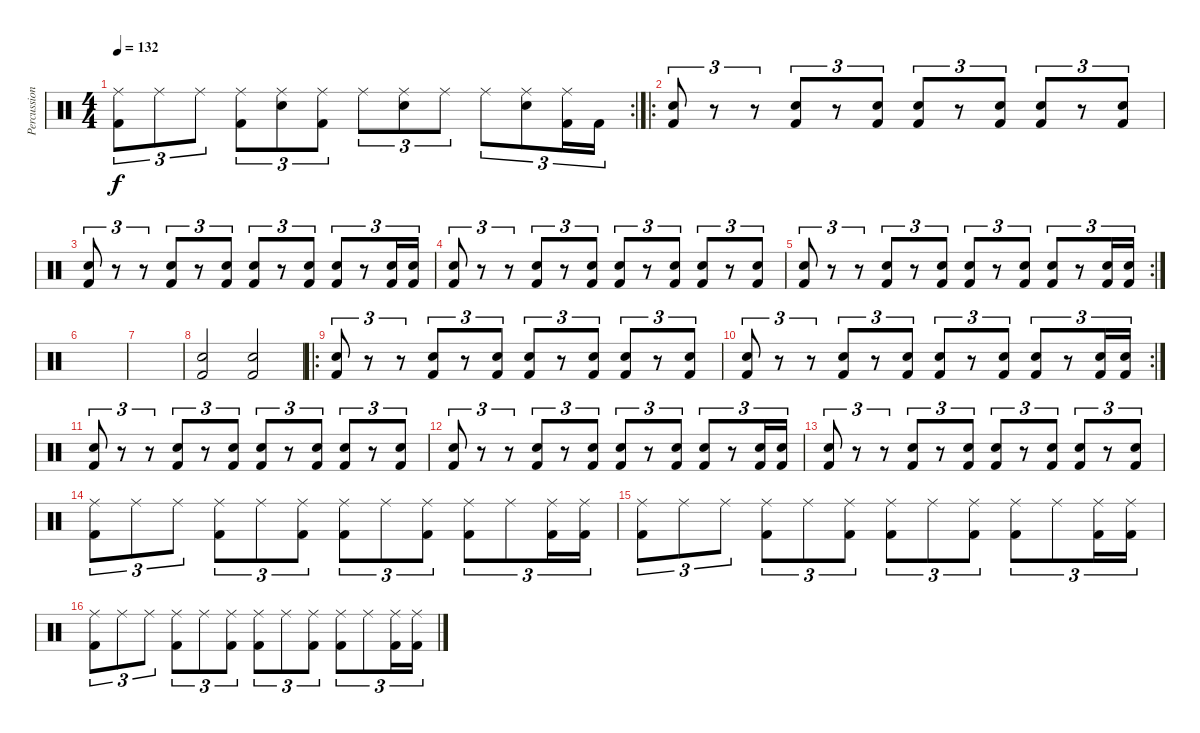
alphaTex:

\track ("Percussions" "Percussion") {instrument percussion}
\staff {score}
\articulation defaults
\rc 2
\ts (4 4)
\tempo 132
\clef neutral
\ks c
("Ride (middle)" "Kick (hit) 2").8{tu (3 2) dy f} "Ride (middle)".8{tu (3 2)} "Ride (middle)".8{tu (3 2)} ("Ride (middle)" "Kick (hit) 2").8{tu (3 2)} ("Ride (middle)" "Snare (hit) 2").8{tu (3 2)} ("Ride (middle)" "Kick (hit) 2").8{tu (3 2)} "Ride (middle)".8{tu (3 2)} ("Ride (middle)" "Snare (hit) 2").8{tu (3 2)} "Ride (middle)".8{tu (3 2)} "Ride (middle)".8{tu (3 2)} ("Ride (middle)" "Snare (hit) 2").8{tu (3 2)} ("Ride (middle)" "Kick (hit) 2").16{tu (3 2)} "Kick (hit) 2".16{tu (3 2)} |
\ro
("Snare (hit) 2" "Kick (hit) 2").8{tu (3 2)} r.8{tu (3 2)} r.8{tu (3 2)} ("Snare (hit) 2" "Kick (hit) 2").8{tu (3 2)} r.8{tu (3 2)} ("Snare (hit) 2" "Kick (hit) 2").8{tu (3 2)} ("Snare (hit) 2" "Kick (hit) 2").8{tu (3 2)} r.8{tu (3 2)} ("Snare (hit) 2" "Kick (hit) 2").8{tu (3 2)} ("Snare (hit) 2" "Kick (hit) 2").8{tu (3 2)} r.8{tu (3 2)} ("Snare (hit) 2" "Kick (hit) 2").8{tu (3 2)} |
("Snare (hit) 2" "Kick (hit) 2").8{tu (3 2)} r.8{tu (3 2)} r.8{tu (3 2)} ("Snare (hit) 2" "Kick (hit) 2").8{tu (3 2)} r.8{tu (3 2)} ("Snare (hit) 2" "Kick (hit) 2").8{tu (3 2)} ("Snare (hit) 2" "Kick (hit) 2").8{tu (3 2)} r.8{tu (3 2)} ("Snare (hit) 2" "Kick (hit) 2").8{tu (3 2)} ("Snare (hit) 2" "Kick (hit) 2").8{tu (3 2)} r.8{tu (3 2)} ("Snare (hit) 2" "Kick (hit) 2").16{tu (3 2)} ("Snare (hit) 2" "Kick (hit) 2").16{tu (3 2)} |
("Snare (hit) 2" "Kick (hit) 2").8{tu (3 2)} r.8{tu (3 2)} r.8{tu (3 2)} ("Snare (hit) 2" "Kick (hit) 2").8{tu (3 2)} r.8{tu (3 2)} ("Snare (hit) 2" "Kick (hit) 2").8{tu (3 2)} ("Snare (hit) 2" "Kick (hit) 2").8{tu (3 2)} r.8{tu (3 2)} ("Snare (hit) 2" "Kick (hit) 2").8{tu (3 2)} ("Snare (hit) 2" "Kick (hit) 2").8{tu (3 2)} r.8{tu (3 2)} ("Snare (hit) 2" "Kick (hit) 2").8{tu (3 2)} |
\rc 2
("Snare (hit) 2" "Kick (hit) 2").8{tu (3 2)} r.8{tu (3 2)} r.8{tu (3 2)} ("Snare (hit) 2" "Kick (hit) 2").8{tu (3 2)} r.8{tu (3 2)} ("Snare (hit) 2" "Kick (hit) 2").8{tu (3 2)} ("Snare (hit) 2" "Kick (hit) 2").8{tu (3 2)} r.8{tu (3 2)} ("Snare (hit) 2" "Kick (hit) 2").8{tu (3 2)} ("Snare (hit) 2" "Kick (hit) 2").8{tu (3 2)} r.8{tu (3 2)} ("Snare (hit) 2" "Kick (hit) 2").16{tu (3 2)} ("Snare (hit) 2" "Kick (hit) 2").16{tu (3 2)} |
|
|
("Snare (hit) 2" "Kick (hit) 2").2 ("Snare (hit) 2" "Kick (hit) 2").2 |
\ro
("Snare (hit) 2" "Kick (hit) 2").8{tu (3 2)} r.8{tu (3 2)} r.8{tu (3 2)} ("Snare (hit) 2" "Kick (hit) 2").8{tu (3 2)} r.8{tu (3 2)} ("Snare (hit) 2" "Kick (hit) 2").8{tu (3 2)} ("Snare (hit) 2" "Kick (hit) 2").8{tu (3 2)} r.8{tu (3 2)} ("Snare (hit) 2" "Kick (hit) 2").8{tu (3 2)} ("Snare (hit) 2" "Kick (hit) 2").8{tu (3 2)} r.8{tu (3 2)} ("Snare (hit) 2" "Kick (hit) 2").8{tu (3 2)} |
\rc 2
("Snare (hit) 2" "Kick (hit) 2").8{tu (3 2)} r.8{tu (3 2)} r.8{tu (3 2)} ("Snare (hit) 2" "Kick (hit) 2").8{tu (3 2)} r.8{tu (3 2)} ("Snare (hit) 2" "Kick (hit) 2").8{tu (3 2)} ("Snare (hit) 2" "Kick (hit) 2").8{tu (3 2)} r.8{tu (3 2)} ("Snare (hit) 2" "Kick (hit) 2").8{tu (3 2)} ("Snare (hit) 2" "Kick (hit) 2").8{tu (3 2)} r.8{tu (3 2)} ("Snare (hit) 2" "Kick (hit) 2").16{tu (3 2)} ("Snare (hit) 2" "Kick (hit) 2").16{tu (3 2)} |
("Snare (hit) 2" "Kick (hit) 2").8{tu (3 2)} r.8{tu (3 2)} r.8{tu (3 2)} ("Snare (hit) 2" "Kick (hit) 2").8{tu (3 2)} r.8{tu (3 2)} ("Snare (hit) 2" "Kick (hit) 2").8{tu (3 2)} ("Snare (hit) 2" "Kick (hit) 2").8{tu (3 2)} r.8{tu (3 2)} ("Snare (hit) 2" "Kick (hit) 2").8{tu (3 2)} ("Snare (hit) 2" "Kick (hit) 2").8{tu (3 2)} r.8{tu (3 2)} ("Snare (hit) 2" "Kick (hit) 2").8{tu (3 2)} |
("Snare (hit) 2" "Kick (hit) 2").8{tu (3 2)} r.8{tu (3 2)} r.8{tu (3 2)} ("Snare (hit) 2" "Kick (hit) 2").8{tu (3 2)} r.8{tu (3 2)} ("Snare (hit) 2" "Kick (hit) 2").8{tu (3 2)} ("Snare (hit) 2" "Kick (hit) 2").8{tu (3 2)} r.8{tu (3 2)} ("Snare (hit) 2" "Kick (hit) 2").8{tu (3 2)} ("Snare (hit) 2" "Kick (hit) 2").8{tu (3 2)} r.8{tu (3 2)} ("Snare (hit) 2" "Kick (hit) 2").16{tu (3 2)} ("Snare (hit) 2" "Kick (hit) 2").16{tu (3 2)} |
("Snare (hit) 2" "Kick (hit) 2").8{tu (3 2)} r.8{tu (3 2)} r.8{tu (3 2)} ("Snare (hit) 2" "Kick (hit) 2").8{tu (3 2)} r.8{tu (3 2)} ("Snare (hit) 2" "Kick (hit) 2").8{tu (3 2)} ("Snare (hit) 2" "Kick (hit) 2").8{tu (3 2)} r.8{tu (3 2)} ("Snare (hit) 2" "Kick (hit) 2").8{tu (3 2)} ("Snare (hit) 2" "Kick (hit) 2").8{tu (3 2)} r.8{tu (3 2)} ("Snare (hit) 2" "Kick (hit) 2").8{tu (3 2)} |
("Ride (middle)" "Kick (hit) 2").8{tu (3 2)} "Ride (middle)".8{tu (3 2)} "Ride (middle)".8{tu (3 2)} ("Ride (middle)" "Kick (hit) 2").8{tu (3 2)} "Ride (middle)".8{tu (3 2)} ("Ride (middle)" "Kick (hit) 2").8{tu (3 2)} ("Ride (middle)" "Kick (hit) 2").8{tu (3 2)} "Ride (middle)".8{tu (3 2)} ("Ride (middle)" "Kick (hit) 2").8{tu (3 2)} ("Ride (middle)" "Kick (hit) 2").8{tu (3 2)} "Ride (middle)".8{tu (3 2)} ("Ride (middle)" "Kick (hit) 2").16{tu (3 2)} ("Ride (middle)" "Kick (hit) 2").16{tu (3 2)} |
("Ride (middle)" "Kick (hit) 2").8{tu (3 2)} "Ride (middle)".8{tu (3 2)} "Ride (middle)".8{tu (3 2)} ("Ride (middle)" "Kick (hit) 2").8{tu (3 2)} "Ride (middle)".8{tu (3 2)} ("Ride (middle)" "Kick (hit) 2").8{tu (3 2)} ("Ride (middle)" "Kick (hit) 2").8{tu (3 2)} "Ride (middle)".8{tu (3 2)} ("Ride (middle)" "Kick (hit) 2").8{tu (3 2)} ("Ride (middle)" "Kick (hit) 2").8{tu (3 2)} "Ride (middle)".8{tu (3 2)} ("Ride (middle)" "Kick (hit) 2").16{tu (3 2)} ("Ride (middle)" "Kick (hit) 2").16{tu (3 2)} |
("Ride (middle)" "Kick (hit) 2").8{tu (3 2)} "Ride (middle)".8{tu (3 2)} "Ride (middle)".8{tu (3 2)} ("Ride (middle)" "Kick (hit) 2").8{tu (3 2)} "Ride (middle)".8{tu (3 2)} ("Ride (middle)" "Kick (hit) 2").8{tu (3 2)} ("Ride (middle)" "Kick (hit) 2").8{tu (3 2)} "Ride (middle)".8{tu (3 2)} ("Ride (middle)" "Kick (hit) 2").8{tu (3 2)} ("Ride (middle)" "Kick (hit) 2").8{tu (3 2)} "Ride (middle)".8{tu (3 2)} ("Ride (middle)" "Kick (hit) 2").16{tu (3 2)} ("Ride (middle)" "Kick (hit) 2").16{tu (3 2)}
